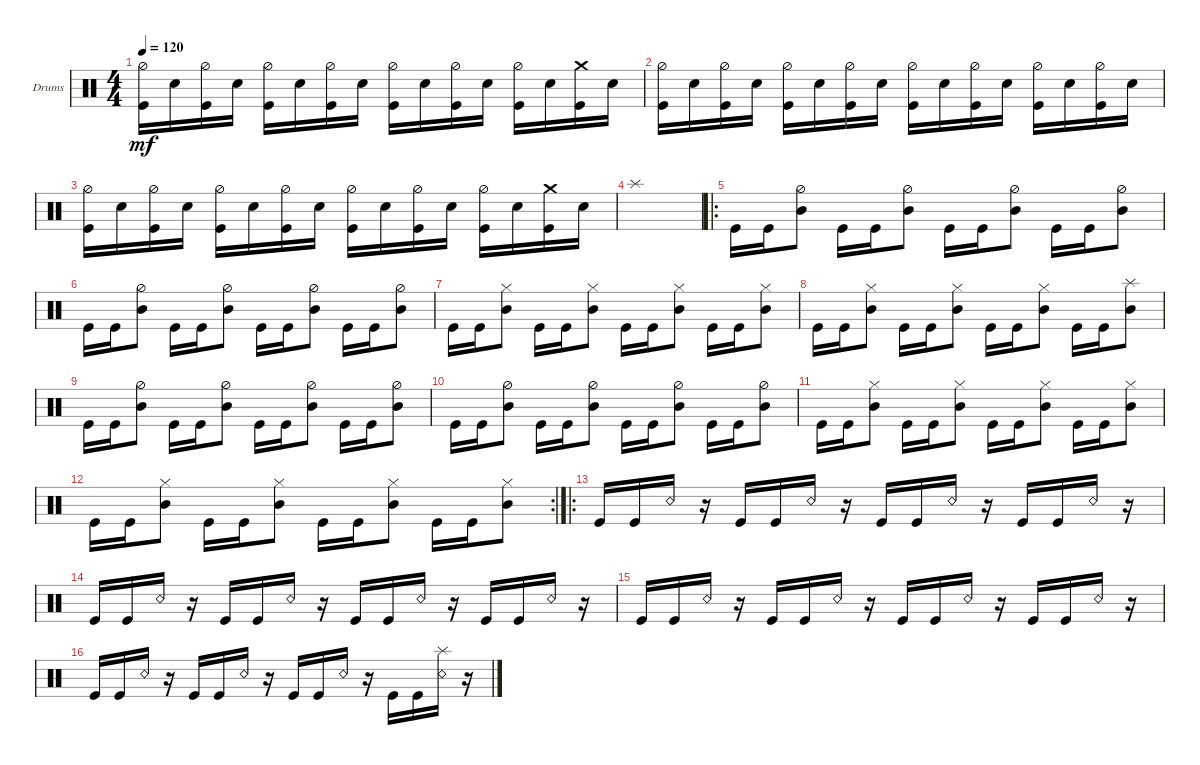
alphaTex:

\defaultSystemsLayout 4
\bracketExtendMode groupsimilarinstruments
\firstSystemTrackNameOrientation horizontal
\otherSystemsTrackNameOrientation horizontal
\track ("Drumkit" "Drums") {instrument percussion}
\staff {score}
\articulation defaults
\ts (4 4)
\tempo 120
\clef neutral
\ks c
("Kick (hit)" "Hi-Hat (half)").16{dy mf} "Snare (hit) 2".16 ("Kick (hit)" "Hi-Hat (half)").16 "Snare (hit) 2".16 ("Kick (hit)" "Hi-Hat (half)").16 "Snare (hit) 2".16 ("Kick (hit)" "Hi-Hat (half)").16 "Snare (hit) 2".16 ("Kick (hit)" "Hi-Hat (half)").16 "Snare (hit) 2".16 ("Kick (hit)" "Hi-Hat (half)").16 "Snare (hit) 2".16 ("Kick (hit)" "Hi-Hat (half)").16 "Snare (hit) 2".16 ("Kick (hit)" "Crash medium (hit)").16 "Snare (hit) 2".16 |
("Kick (hit)" "Hi-Hat (half)").16 "Snare (hit) 2".16 ("Kick (hit)" "Hi-Hat (half)").16 "Snare (hit) 2".16 ("Kick (hit)" "Hi-Hat (half)").16 "Snare (hit) 2".16 ("Kick (hit)" "Hi-Hat (half)").16 "Snare (hit) 2".16 ("Kick (hit)" "Hi-Hat (half)").16 "Snare (hit) 2".16 ("Kick (hit)" "Hi-Hat (half)").16 "Snare (hit) 2".16 ("Kick (hit)" "Hi-Hat (half)").16 "Snare (hit) 2".16 ("Kick (hit)" "Hi-Hat (half)").16 "Snare (hit) 2".16 |
("Kick (hit)" "Hi-Hat (half)").16 "Snare (hit) 2".16 ("Kick (hit)" "Hi-Hat (half)").16 "Snare (hit) 2".16 ("Kick (hit)" "Hi-Hat (half)").16 "Snare (hit) 2".16 ("Kick (hit)" "Hi-Hat (half)").16 "Snare (hit) 2".16 ("Kick (hit)" "Hi-Hat (half)").16 "Snare (hit) 2".16 ("Kick (hit)" "Hi-Hat (half)").16 "Snare (hit) 2".16 ("Kick (hit)" "Hi-Hat (half)").16 "Snare (hit) 2".16 ("Kick (hit)" "Crash medium (hit)").16 "Snare (hit) 2".16 |
"Splash (hit)".1 |
\ro "Kick (hit)".16 "Kick (hit)".16
("Mid Tom (hit)" "Hi-Hat (half)").8 "Kick (hit)".16 "Kick (hit)".16 ("Mid Tom (hit)" "Hi-Hat (half)").8 "Kick (hit)".16 "Kick (hit)".16 ("Mid Tom (hit)" "Hi-Hat (half)").8 "Kick (hit)".16 "Kick (hit)".16 ("Mid Tom (hit)" "Hi-Hat (half)").8 |
"Kick (hit)".16 "Kick (hit)".16 ("Mid Tom (hit)" "Hi-Hat (half)").8 "Kick (hit)".16 "Kick (hit)".16 ("Mid Tom (hit)" "Hi-Hat (half)").8 "Kick (hit)".16 "Kick (hit)".16 ("Mid Tom (hit)" "Hi-Hat (half)").8 "Kick (hit)".16 "Kick (hit)".16 ("Mid Tom (hit)" "Hi-Hat (half)").8 |
"Kick (hit)".16 "Kick (hit)".16 ("Mid Tom (hit)" "Hi-Hat (closed)").8 "Kick (hit)".16 "Kick (hit)".16 ("Mid Tom (hit)" "Hi-Hat (closed)").8 "Kick (hit)".16 "Kick (hit)".16 ("Mid Tom (hit)" "Hi-Hat (closed)").8 "Kick (hit)".16 "Kick (hit)".16 ("Mid Tom (hit)" "Hi-Hat (closed)").8 |
"Kick (hit)".16 "Kick (hit)".16 ("Mid Tom (hit)" "Hi-Hat (closed)").8 "Kick (hit)".16 "Kick (hit)".16 ("Mid Tom (hit)" "Hi-Hat (closed)").8 "Kick (hit)".16 "Kick (hit)".16 ("Mid Tom (hit)" "Hi-Hat (closed)").8 "Kick (hit)".16 "Kick (hit)".16 ("Mid Tom (hit)" "Splash (hit)").8 |
"Kick (hit)".16 "Kick (hit)".16 ("Mid Tom (hit)" "Hi-Hat (half)").8 "Kick (hit)".16 "Kick (hit)".16 ("Mid Tom (hit)" "Hi-Hat (half)").8 "Kick (hit)".16 "Kick (hit)".16 ("Mid Tom (hit)" "Hi-Hat (half)").8 "Kick (hit)".16 "Kick (hit)".16 ("Mid Tom (hit)" "Hi-Hat (half)").8 |
"Kick (hit)".16 "Kick (hit)".16 ("Mid Tom (hit)" "Hi-Hat (half)").8 "Kick (hit)".16 "Kick (hit)".16 ("Mid Tom (hit)" "Hi-Hat (half)").8 "Kick (hit)".16 "Kick (hit)".16 ("Mid Tom (hit)" "Hi-Hat (half)").8 "Kick (hit)".16 "Kick (hit)".16 ("Mid Tom (hit)" "Hi-Hat (half)").8 |
"Kick (hit)".16 "Kick (hit)".16 ("Mid Tom (hit)" "Hi-Hat (closed)").8 "Kick (hit)".16 "Kick (hit)".16 ("Mid Tom (hit)" "Hi-Hat (closed)").8 "Kick (hit)".16 "Kick (hit)".16 ("Mid Tom (hit)" "Hi-Hat (closed)").8 "Kick (hit)".16 "Kick (hit)".16 ("Mid Tom (hit)" "Hi-Hat (closed)").8 |
\rc 2 "Kick (hit)".16 "Kick (hit)".16
("Mid Tom (hit)" "Hi-Hat (closed)").8 "Kick (hit)".16 "Kick (hit)".16 ("Mid Tom (hit)" "Hi-Hat (closed)").8 "Kick (hit)".16 "Kick (hit)".16 ("Mid Tom (hit)" "Hi-Hat (closed)").8 "Kick (hit)".16 "Kick (hit)".16 ("Mid Tom (hit)" "Hi-Hat (closed)").8 |
\ro "Kick (hit)".16 "Kick (hit)".16 "Snare (rim shot)".16
r.16 "Kick (hit)".16 "Kick (hit)".16 "Snare (rim shot)".16 r.16 "Kick (hit)".16 "Kick (hit)".16 "Snare (rim shot)".16 r.16 "Kick (hit)".16 "Kick (hit)".16 "Snare (rim shot)".16 r.16 |
"Kick (hit)".16 "Kick (hit)".16 "Snare (rim shot)".16 r.16 "Kick (hit)".16 "Kick (hit)".16 "Snare (rim shot)".16 r.16 "Kick (hit)".16 "Kick (hit)".16 "Snare (rim shot)".16 r.16 "Kick (hit)".16 "Kick (hit)".16 "Snare (rim shot)".16 r.16 |
"Kick (hit)".16 "Kick (hit)".16 "Snare (rim shot)".16 r.16 "Kick (hit)".16 "Kick (hit)".16 "Snare (rim shot)".16 r.16 "Kick (hit)".16 "Kick (hit)".16 "Snare (rim shot)".16 r.16 "Kick (hit)".16 "Kick (hit)".16 "Snare (rim shot)".16 r.16 |
"Kick (hit)".16 "Kick (hit)".16 "Snare (rim shot)".16 r.16 "Kick (hit)".16 "Kick (hit)".16 "Snare (rim shot)".16 r.16 "Kick (hit)".16 "Kick (hit)".16 "Snare (rim shot)".16 r.16 "Kick (hit)".16 "Kick (hit)".16 ("Snare (rim shot)" "Splash (hit)").16 r.16
